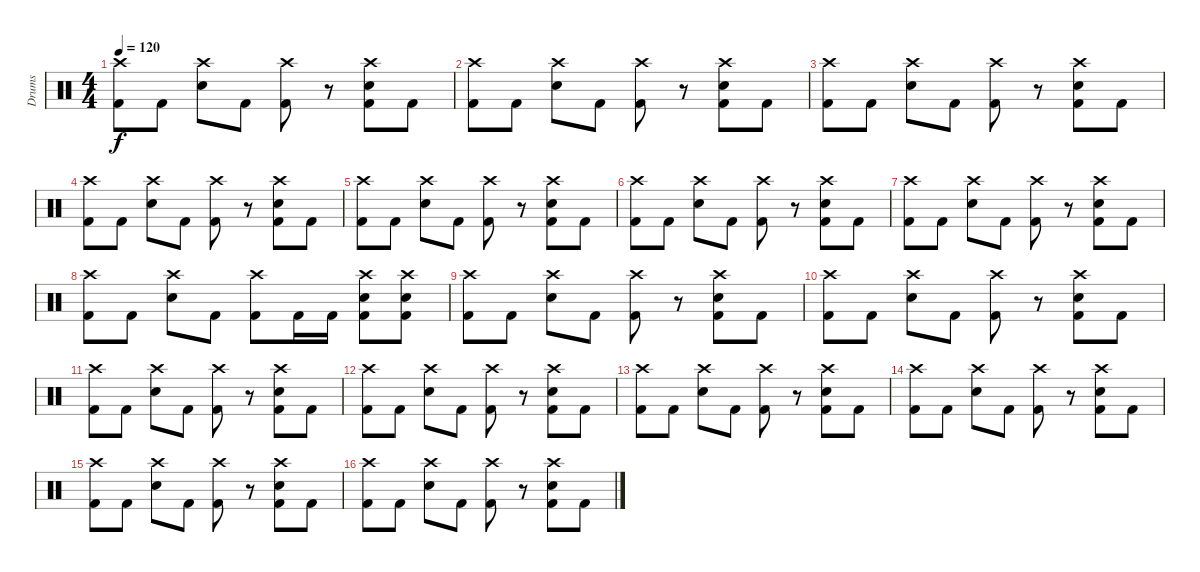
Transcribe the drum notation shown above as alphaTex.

\track ("Drums" "Drums") {instrument percussion}
\staff {score}
\articulation defaults
\ts (4 4)
\tempo 120
\clef neutral
\ks c
("Crash high (hit)" "Kick (hit) 2").8{dy f} "Kick (hit) 2".8 ("Crash high (hit)" "Snare (hit) 2").8 "Kick (hit) 2".8 ("Crash high (hit)" "Kick (hit) 2").8 r.8 ("Crash high (hit)" "Snare (hit) 2" "Kick (hit) 2").8 "Kick (hit) 2".8 |
("Crash high (hit)" "Kick (hit) 2").8 "Kick (hit) 2".8 ("Crash high (hit)" "Snare (hit) 2").8 "Kick (hit) 2".8 ("Crash high (hit)" "Kick (hit) 2").8 r.8 ("Crash high (hit)" "Snare (hit) 2" "Kick (hit) 2").8 "Kick (hit) 2".8 |
("Crash high (hit)" "Kick (hit) 2").8 "Kick (hit) 2".8 ("Crash high (hit)" "Snare (hit) 2").8 "Kick (hit) 2".8 ("Crash high (hit)" "Kick (hit) 2").8 r.8 ("Crash high (hit)" "Snare (hit) 2" "Kick (hit) 2").8 "Kick (hit) 2".8 |
("Crash high (hit)" "Kick (hit) 2").8 "Kick (hit) 2".8 ("Crash high (hit)" "Snare (hit) 2").8 "Kick (hit) 2".8 ("Crash high (hit)" "Kick (hit) 2").8 r.8 ("Crash high (hit)" "Snare (hit) 2" "Kick (hit) 2").8 "Kick (hit) 2".8 |
("Crash high (hit)" "Kick (hit) 2").8 "Kick (hit) 2".8 ("Crash high (hit)" "Snare (hit) 2").8 "Kick (hit) 2".8 ("Crash high (hit)" "Kick (hit) 2").8 r.8 ("Crash high (hit)" "Snare (hit) 2" "Kick (hit) 2").8 "Kick (hit) 2".8 |
("Crash high (hit)" "Kick (hit) 2").8 "Kick (hit) 2".8 ("Crash high (hit)" "Snare (hit) 2").8 "Kick (hit) 2".8 ("Crash high (hit)" "Kick (hit) 2").8 r.8 ("Crash high (hit)" "Snare (hit) 2" "Kick (hit) 2").8 "Kick (hit) 2".8 |
("Crash high (hit)" "Kick (hit) 2").8 "Kick (hit) 2".8 ("Crash high (hit)" "Snare (hit) 2").8 "Kick (hit) 2".8 ("Crash high (hit)" "Kick (hit) 2").8 r.8 ("Crash high (hit)" "Snare (hit) 2" "Kick (hit) 2").8 "Kick (hit) 2".8 |
("Crash high (hit)" "Kick (hit) 2").8 "Kick (hit) 2".8 ("Crash high (hit)" "Snare (hit) 2").8 "Kick (hit) 2".8 ("Crash high (hit)" "Kick (hit) 2").8 "Kick (hit) 2".16 "Kick (hit) 2".16 ("Crash high (hit)" "Snare (hit) 2" "Kick (hit) 2").8 ("Crash high (hit)" "Snare (hit) 2" "Kick (hit) 2").8 |
("Crash high (hit)" "Kick (hit) 2").8 "Kick (hit) 2".8 ("Crash high (hit)" "Snare (hit) 2").8 "Kick (hit) 2".8 ("Crash high (hit)" "Kick (hit) 2").8 r.8 ("Crash high (hit)" "Snare (hit) 2" "Kick (hit) 2").8 "Kick (hit) 2".8 |
("Crash high (hit)" "Kick (hit) 2").8 "Kick (hit) 2".8 ("Crash high (hit)" "Snare (hit) 2").8 "Kick (hit) 2".8 ("Crash high (hit)" "Kick (hit) 2").8 r.8 ("Crash high (hit)" "Snare (hit) 2" "Kick (hit) 2").8 "Kick (hit) 2".8 |
("Crash high (hit)" "Kick (hit) 2").8 "Kick (hit) 2".8 ("Crash high (hit)" "Snare (hit) 2").8 "Kick (hit) 2".8 ("Crash high (hit)" "Kick (hit) 2").8 r.8 ("Crash high (hit)" "Snare (hit) 2" "Kick (hit) 2").8 "Kick (hit) 2".8 |
("Crash high (hit)" "Kick (hit) 2").8 "Kick (hit) 2".8 ("Crash high (hit)" "Snare (hit) 2").8 "Kick (hit) 2".8 ("Crash high (hit)" "Kick (hit) 2").8 r.8 ("Crash high (hit)" "Snare (hit) 2" "Kick (hit) 2").8 "Kick (hit) 2".8 |
("Crash high (hit)" "Kick (hit) 2").8 "Kick (hit) 2".8 ("Crash high (hit)" "Snare (hit) 2").8 "Kick (hit) 2".8 ("Crash high (hit)" "Kick (hit) 2").8 r.8 ("Crash high (hit)" "Snare (hit) 2" "Kick (hit) 2").8 "Kick (hit) 2".8 |
("Crash high (hit)" "Kick (hit) 2").8 "Kick (hit) 2".8 ("Crash high (hit)" "Snare (hit) 2").8 "Kick (hit) 2".8 ("Crash high (hit)" "Kick (hit) 2").8 r.8 ("Crash high (hit)" "Snare (hit) 2" "Kick (hit) 2").8 "Kick (hit) 2".8 |
("Crash high (hit)" "Kick (hit) 2").8 "Kick (hit) 2".8 ("Crash high (hit)" "Snare (hit) 2").8 "Kick (hit) 2".8 ("Crash high (hit)" "Kick (hit) 2").8 r.8 ("Crash high (hit)" "Snare (hit) 2" "Kick (hit) 2").8 "Kick (hit) 2".8 |
("Crash high (hit)" "Kick (hit) 2").8 "Kick (hit) 2".8 ("Crash high (hit)" "Snare (hit) 2").8 "Kick (hit) 2".8 ("Crash high (hit)" "Kick (hit) 2").8 r.8 ("Crash high (hit)" "Snare (hit) 2" "Kick (hit) 2").8 "Kick (hit) 2".8
